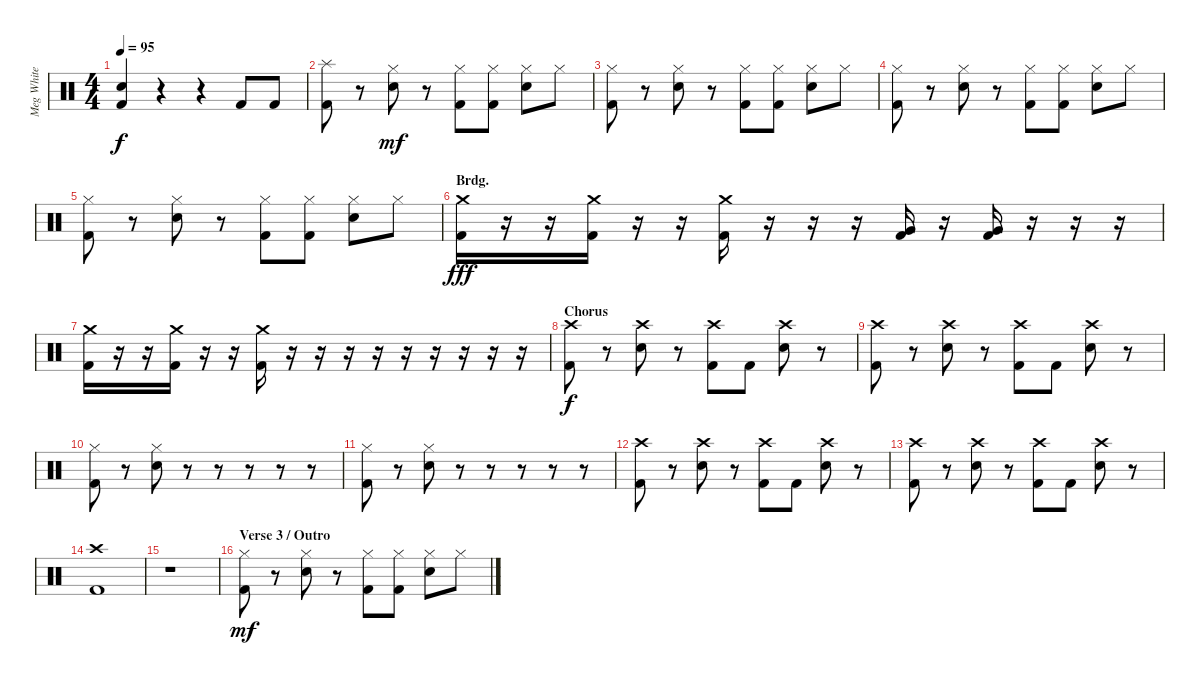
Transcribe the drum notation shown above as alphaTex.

\track ("Meg White - Drums" "Meg White ") {instrument percussion}
\staff {score}
\articulation defaults
\ts (4 4)
\tempo 95
\clef neutral
\ks c
("Electric Snare (hit)" "Kick (hit) 2").4{dy f} r.4 r.4 "Kick (hit) 2".8 "Kick (hit) 2".8 |
("Splash (hit)" "Kick (hit) 2").8 r.8 ("Hi-Hat (closed)" "Electric Snare (hit)").8{dy mf} r.8 ("Hi-Hat (closed)" "Kick (hit) 2").8 ("Hi-Hat (closed)" "Kick (hit) 2").8 ("Hi-Hat (closed)" "Electric Snare (hit)").8 "Hi-Hat (closed)".8 |
("Hi-Hat (closed)" "Kick (hit) 2").8 r.8 ("Hi-Hat (closed)" "Electric Snare (hit)").8 r.8 ("Hi-Hat (closed)" "Kick (hit) 2").8 ("Hi-Hat (closed)" "Kick (hit) 2").8 ("Hi-Hat (closed)" "Electric Snare (hit)").8 "Hi-Hat (closed)".8 |
("Hi-Hat (closed)" "Kick (hit) 2").8 r.8 ("Hi-Hat (closed)" "Electric Snare (hit)").8 r.8 ("Hi-Hat (closed)" "Kick (hit) 2").8 ("Hi-Hat (closed)" "Kick (hit) 2").8 ("Hi-Hat (closed)" "Electric Snare (hit)").8 "Hi-Hat (closed)".8 |
("Hi-Hat (closed)" "Kick (hit) 2").8 r.8 ("Hi-Hat (closed)" "Electric Snare (hit)").8 r.8 ("Hi-Hat (closed)" "Kick (hit) 2").8 ("Hi-Hat (closed)" "Kick (hit) 2").8 ("Hi-Hat (closed)" "Electric Snare (hit)").8 "Hi-Hat (closed)".8 |
\section ("" "Brdg.")
("Crash medium (hit)" "Kick (hit) 2").16{dy fff} r.16 r.16 ("Crash medium (hit)" "Kick (hit) 2").16 r.16 r.16 ("Crash medium (hit)" "Kick (hit) 2").16 r.16 r.16 r.16 ("Very Low Tom (hit)" "Kick (hit) 2").16 r.16 ("Very Low Tom (hit)" "Kick (hit) 2").16 r.16 r.16 r.16 |
("Crash medium (hit)" "Kick (hit) 2").16 r.16 r.16 ("Crash medium (hit)" "Kick (hit) 2").16 r.16 r.16 ("Crash medium (hit)" "Kick (hit) 2").16 r.16 r.16 r.16 r.16 r.16 r.16 r.16 r.16 r.16 |
\section ("" "Chorus")
("Crash high (hit)" "Kick (hit) 2").8{dy f} r.8 ("Crash high (hit)" "Electric Snare (hit)").8 r.8 ("Crash high (hit)" "Kick (hit) 2").8 "Kick (hit) 2".8 ("Crash high (hit)" "Electric Snare (hit)").8 r.8 |
("Crash high (hit)" "Kick (hit) 2").8 r.8 ("Crash high (hit)" "Electric Snare (hit)").8 r.8 ("Crash high (hit)" "Kick (hit) 2").8 "Kick (hit) 2".8 ("Crash high (hit)" "Electric Snare (hit)").8 r.8 |
("Hi-Hat (closed)" "Kick (hit) 2").8 r.8 ("Hi-Hat (closed)" "Electric Snare (hit)").8 r.8 r.8 r.8 r.8 r.8 |
("Hi-Hat (closed)" "Kick (hit) 2").8 r.8 ("Hi-Hat (closed)" "Electric Snare (hit)").8 r.8 r.8 r.8 r.8 r.8 |
("Crash high (hit)" "Kick (hit) 2").8 r.8 ("Crash high (hit)" "Electric Snare (hit)").8 r.8 ("Crash high (hit)" "Kick (hit) 2").8 "Kick (hit) 2".8 ("Crash high (hit)" "Electric Snare (hit)").8 r.8 |
("Crash high (hit)" "Kick (hit) 2").8 r.8 ("Crash high (hit)" "Electric Snare (hit)").8 r.8 ("Crash high (hit)" "Kick (hit) 2").8 "Kick (hit) 2".8 ("Crash high (hit)" "Electric Snare (hit)").8 r.8 |
("Crash high (hit)" "Kick (hit) 2").1 |
r.1 |
\section ("" "Verse 3 / Outro")
("Hi-Hat (closed)" "Kick (hit) 2").8{dy mf} r.8 ("Hi-Hat (closed)" "Electric Snare (hit)").8 r.8 ("Hi-Hat (closed)" "Kick (hit) 2").8 ("Hi-Hat (closed)" "Kick (hit) 2").8 ("Hi-Hat (closed)" "Electric Snare (hit)").8 "Hi-Hat (closed)".8
